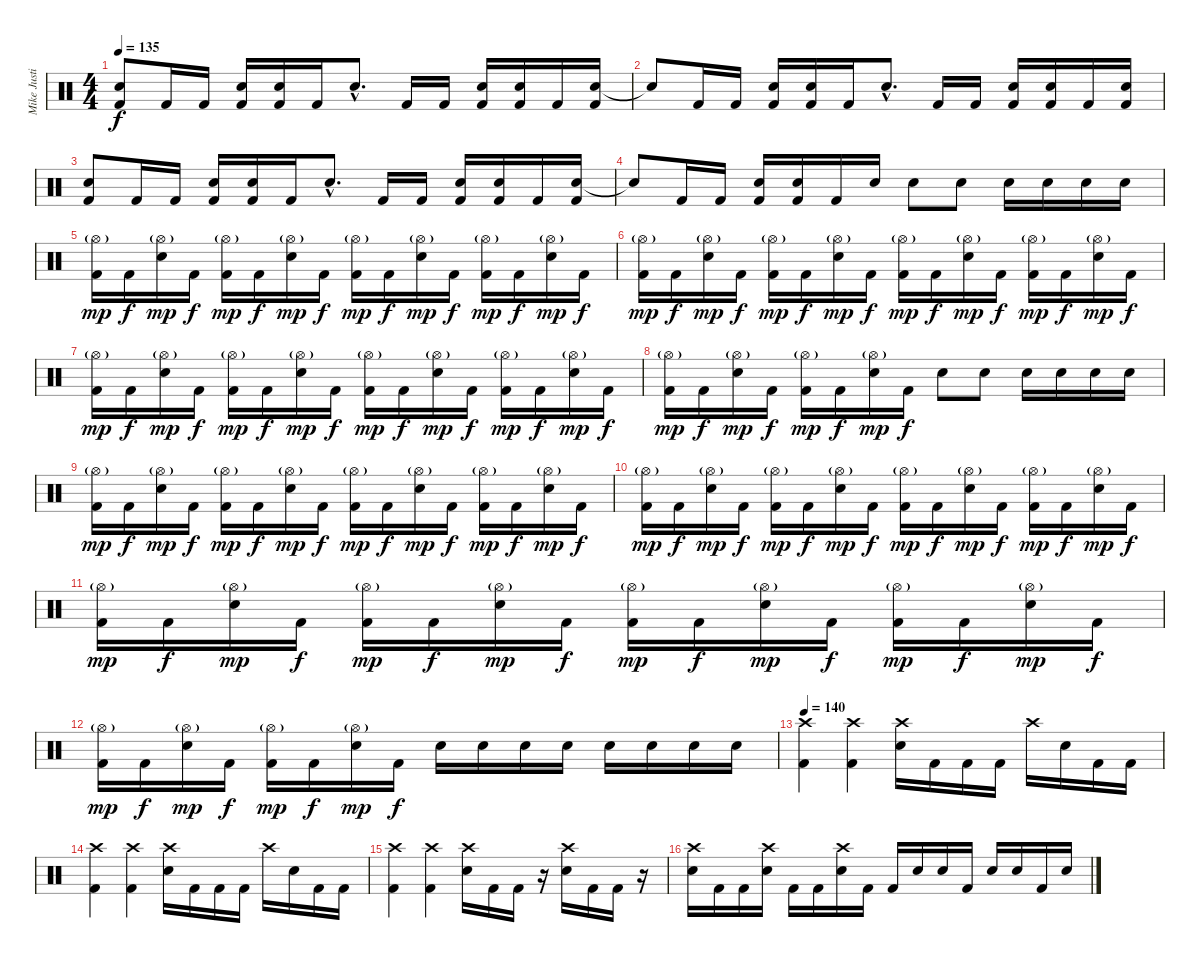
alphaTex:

\track ("Mike Justian" "Mike Justi") {instrument percussion}
\staff {score}
\articulation defaults
\ts (4 4)
\tempo 135
\clef neutral
\ks c
("Electric Snare (hit)" "Kick (hit) 2").8{dy f} "Kick (hit) 2".16 "Kick (hit) 2".16 ("Electric Snare (hit)" "Kick (hit) 2").16 ("Electric Snare (hit)" "Kick (hit) 2").16 "Kick (hit) 2".16 "Electric Snare (hit)"{hac}.8{d} "Kick (hit) 2".16 "Kick (hit) 2".16 ("Electric Snare (hit)" "Kick (hit) 2").16 ("Electric Snare (hit)" "Kick (hit) 2").16 "Kick (hit) 2".16 ("Electric Snare (hit)" "Kick (hit) 2").16 |
"Electric Snare (hit)"{t}.8 "Kick (hit) 2".16 "Kick (hit) 2".16 ("Electric Snare (hit)" "Kick (hit) 2").16 ("Electric Snare (hit)" "Kick (hit) 2").16 "Kick (hit) 2".16 "Electric Snare (hit)"{hac}.8{d} "Kick (hit) 2".16 "Kick (hit) 2".16 ("Electric Snare (hit)" "Kick (hit) 2").16 ("Electric Snare (hit)" "Kick (hit) 2").16 "Kick (hit) 2".16 ("Electric Snare (hit)" "Kick (hit) 2").16 |
("Electric Snare (hit)" "Kick (hit) 2").8 "Kick (hit) 2".16 "Kick (hit) 2".16 ("Electric Snare (hit)" "Kick (hit) 2").16 ("Electric Snare (hit)" "Kick (hit) 2").16 "Kick (hit) 2".16 "Electric Snare (hit)"{hac}.8{d} "Kick (hit) 2".16 "Kick (hit) 2".16 ("Electric Snare (hit)" "Kick (hit) 2").16 ("Electric Snare (hit)" "Kick (hit) 2").16 "Kick (hit) 2".16 ("Electric Snare (hit)" "Kick (hit) 2").16 |
"Electric Snare (hit)"{t}.8 "Kick (hit) 2".16 "Kick (hit) 2".16 ("Electric Snare (hit)" "Kick (hit) 2").16 ("Electric Snare (hit)" "Kick (hit) 2").16 "Kick (hit) 2".16 "Electric Snare (hit)".16 "Electric Snare (hit)".8 "Electric Snare (hit)".8 "Electric Snare (hit)".16 "Electric Snare (hit)".16 "Electric Snare (hit)".16 "Electric Snare (hit)".16 |
("Hi-Hat (open)"{g} "Kick (hit) 2").16{dy mp} "Kick (hit) 2".16{dy f} ("Hi-Hat (open)"{g} "Electric Snare (hit)").16{dy mp} "Kick (hit) 2".16{dy f} ("Hi-Hat (open)"{g} "Kick (hit) 2").16{dy mp} "Kick (hit) 2".16{dy f} ("Hi-Hat (open)"{g} "Electric Snare (hit)").16{dy mp} "Kick (hit) 2".16{dy f} ("Hi-Hat (open)"{g} "Kick (hit) 2").16{dy mp} "Kick (hit) 2".16{dy f} ("Hi-Hat (open)"{g} "Electric Snare (hit)").16{dy mp} "Kick (hit) 2".16{dy f} ("Hi-Hat (open)"{g} "Kick (hit) 2").16{dy mp} "Kick (hit) 2".16{dy f} ("Hi-Hat (open)"{g} "Electric Snare (hit)").16{dy mp} "Kick (hit) 2".16{dy f} |
("Hi-Hat (open)"{g} "Kick (hit) 2").16{dy mp} "Kick (hit) 2".16{dy f} ("Hi-Hat (open)"{g} "Electric Snare (hit)").16{dy mp} "Kick (hit) 2".16{dy f} ("Hi-Hat (open)"{g} "Kick (hit) 2").16{dy mp} "Kick (hit) 2".16{dy f} ("Hi-Hat (open)"{g} "Electric Snare (hit)").16{dy mp} "Kick (hit) 2".16{dy f} ("Hi-Hat (open)"{g} "Kick (hit) 2").16{dy mp} "Kick (hit) 2".16{dy f} ("Hi-Hat (open)"{g} "Electric Snare (hit)").16{dy mp} "Kick (hit) 2".16{dy f} ("Hi-Hat (open)"{g} "Kick (hit) 2").16{dy mp} "Kick (hit) 2".16{dy f} ("Hi-Hat (open)"{g} "Electric Snare (hit)").16{dy mp} "Kick (hit) 2".16{dy f} |
("Hi-Hat (open)"{g} "Kick (hit) 2").16{dy mp} "Kick (hit) 2".16{dy f} ("Hi-Hat (open)"{g} "Electric Snare (hit)").16{dy mp} "Kick (hit) 2".16{dy f} ("Hi-Hat (open)"{g} "Kick (hit) 2").16{dy mp} "Kick (hit) 2".16{dy f} ("Hi-Hat (open)"{g} "Electric Snare (hit)").16{dy mp} "Kick (hit) 2".16{dy f} ("Hi-Hat (open)"{g} "Kick (hit) 2").16{dy mp} "Kick (hit) 2".16{dy f} ("Hi-Hat (open)"{g} "Electric Snare (hit)").16{dy mp} "Kick (hit) 2".16{dy f} ("Hi-Hat (open)"{g} "Kick (hit) 2").16{dy mp} "Kick (hit) 2".16{dy f} ("Hi-Hat (open)"{g} "Electric Snare (hit)").16{dy mp} "Kick (hit) 2".16{dy f} |
("Hi-Hat (open)"{g} "Kick (hit) 2").16{dy mp} "Kick (hit) 2".16{dy f} ("Hi-Hat (open)"{g} "Electric Snare (hit)").16{dy mp} "Kick (hit) 2".16{dy f} ("Hi-Hat (open)"{g} "Kick (hit) 2").16{dy mp} "Kick (hit) 2".16{dy f} ("Hi-Hat (open)"{g} "Electric Snare (hit)").16{dy mp} "Kick (hit) 2".16{dy f} "Electric Snare (hit)".8 "Electric Snare (hit)".8 "Electric Snare (hit)".16 "Electric Snare (hit)".16 "Electric Snare (hit)".16 "Electric Snare (hit)".16 |
("Hi-Hat (open)"{g} "Kick (hit) 2").16{dy mp} "Kick (hit) 2".16{dy f} ("Hi-Hat (open)"{g} "Electric Snare (hit)").16{dy mp} "Kick (hit) 2".16{dy f} ("Hi-Hat (open)"{g} "Kick (hit) 2").16{dy mp} "Kick (hit) 2".16{dy f} ("Hi-Hat (open)"{g} "Electric Snare (hit)").16{dy mp} "Kick (hit) 2".16{dy f} ("Hi-Hat (open)"{g} "Kick (hit) 2").16{dy mp} "Kick (hit) 2".16{dy f} ("Hi-Hat (open)"{g} "Electric Snare (hit)").16{dy mp} "Kick (hit) 2".16{dy f} ("Hi-Hat (open)"{g} "Kick (hit) 2").16{dy mp} "Kick (hit) 2".16{dy f} ("Hi-Hat (open)"{g} "Electric Snare (hit)").16{dy mp} "Kick (hit) 2".16{dy f} |
("Hi-Hat (open)"{g} "Kick (hit) 2").16{dy mp} "Kick (hit) 2".16{dy f} ("Hi-Hat (open)"{g} "Electric Snare (hit)").16{dy mp} "Kick (hit) 2".16{dy f} ("Hi-Hat (open)"{g} "Kick (hit) 2").16{dy mp} "Kick (hit) 2".16{dy f} ("Hi-Hat (open)"{g} "Electric Snare (hit)").16{dy mp} "Kick (hit) 2".16{dy f} ("Hi-Hat (open)"{g} "Kick (hit) 2").16{dy mp} "Kick (hit) 2".16{dy f} ("Hi-Hat (open)"{g} "Electric Snare (hit)").16{dy mp} "Kick (hit) 2".16{dy f} ("Hi-Hat (open)"{g} "Kick (hit) 2").16{dy mp} "Kick (hit) 2".16{dy f} ("Hi-Hat (open)"{g} "Electric Snare (hit)").16{dy mp} "Kick (hit) 2".16{dy f} |
("Hi-Hat (open)"{g} "Kick (hit) 2").16{dy mp} "Kick (hit) 2".16{dy f} ("Hi-Hat (open)"{g} "Electric Snare (hit)").16{dy mp} "Kick (hit) 2".16{dy f} ("Hi-Hat (open)"{g} "Kick (hit) 2").16{dy mp} "Kick (hit) 2".16{dy f} ("Hi-Hat (open)"{g} "Electric Snare (hit)").16{dy mp} "Kick (hit) 2".16{dy f} ("Hi-Hat (open)"{g} "Kick (hit) 2").16{dy mp} "Kick (hit) 2".16{dy f} ("Hi-Hat (open)"{g} "Electric Snare (hit)").16{dy mp} "Kick (hit) 2".16{dy f} ("Hi-Hat (open)"{g} "Kick (hit) 2").16{dy mp} "Kick (hit) 2".16{dy f} ("Hi-Hat (open)"{g} "Electric Snare (hit)").16{dy mp} "Kick (hit) 2".16{dy f} |
("Hi-Hat (open)"{g} "Kick (hit) 2").16{dy mp} "Kick (hit) 2".16{dy f} ("Hi-Hat (open)"{g} "Electric Snare (hit)").16{dy mp} "Kick (hit) 2".16{dy f} ("Hi-Hat (open)"{g} "Kick (hit) 2").16{dy mp} "Kick (hit) 2".16{dy f} ("Hi-Hat (open)"{g} "Electric Snare (hit)").16{dy mp} "Kick (hit) 2".16{dy f} "Electric Snare (hit)".16 "Electric Snare (hit)".16 "Electric Snare (hit)".16 "Electric Snare (hit)".16 "Electric Snare (hit)".16 "Electric Snare (hit)".16 "Electric Snare (hit)".16 "Electric Snare (hit)".16 |
\tempo 140
("Crash high (hit)" "Kick (hit) 2").4 ("Crash high (hit)" "Kick (hit) 2").4 ("Crash high (hit)" "Electric Snare (hit)").16 "Kick (hit) 2".16 "Kick (hit) 2".16 "Kick (hit) 2".16 "Crash high (hit)".16 "Electric Snare (hit)".16 "Kick (hit) 2".16 "Kick (hit) 2".16 |
("Crash high (hit)" "Kick (hit) 2").4 ("Crash high (hit)" "Kick (hit) 2").4 ("Crash high (hit)" "Electric Snare (hit)").16 "Kick (hit) 2".16 "Kick (hit) 2".16 "Kick (hit) 2".16 "Crash high (hit)".16 "Electric Snare (hit)".16 "Kick (hit) 2".16 "Kick (hit) 2".16 |
("Crash high (hit)" "Kick (hit) 2").4 ("Crash high (hit)" "Kick (hit) 2").4 ("Crash high (hit)" "Electric Snare (hit)").16 "Kick (hit) 2".16 "Kick (hit) 2".16 r.16 ("Crash high (hit)" "Electric Snare (hit)").16 "Kick (hit) 2".16 "Kick (hit) 2".16 r.16 |
("Crash high (hit)" "Electric Snare (hit)").16 "Kick (hit) 2".16 "Kick (hit) 2".16 ("Crash high (hit)" "Electric Snare (hit)").16 "Kick (hit) 2".16 "Kick (hit) 2".16 ("Crash high (hit)" "Electric Snare (hit)").16 "Kick (hit) 2".16 "Kick (hit) 2".16 "Electric Snare (hit)".16 "Electric Snare (hit)".16 "Kick (hit) 2".16 "Electric Snare (hit)".16 "Electric Snare (hit)".16 "Kick (hit) 2".16 "Electric Snare (hit)".16
